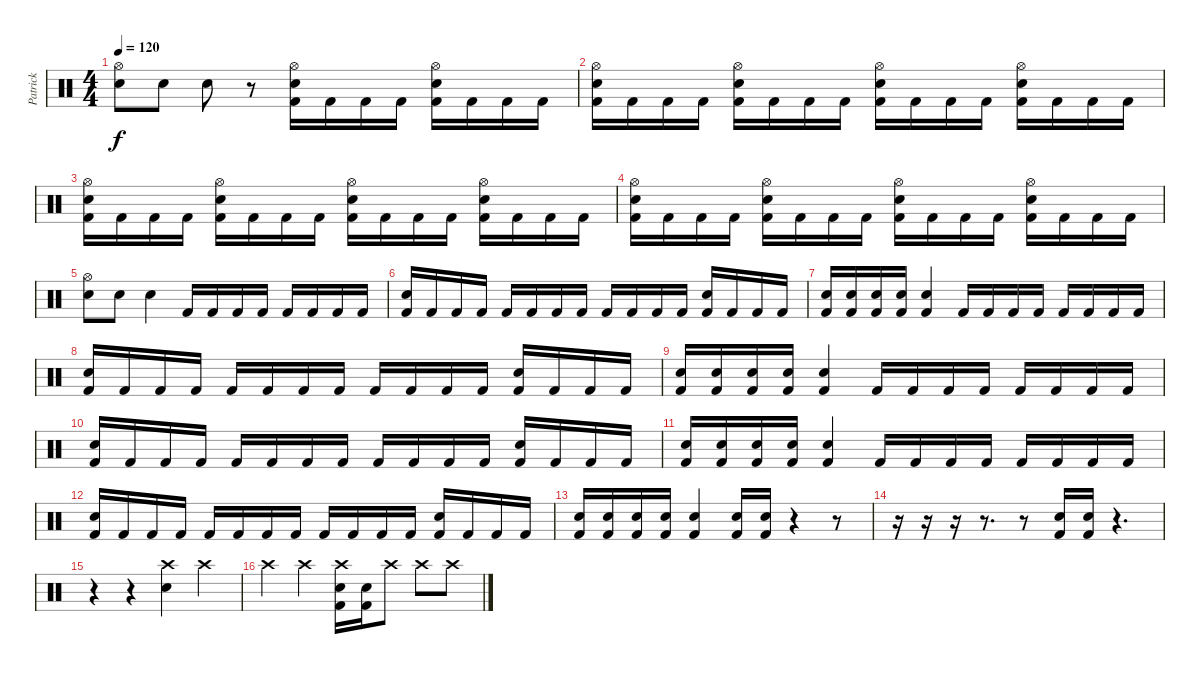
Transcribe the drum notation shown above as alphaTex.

\track ("Patrick" "Patrick") {instrument percussion}
\staff {score}
\articulation defaults
\ts (4 4)
\tempo 120
\clef neutral
\ks c
("Hi-Hat (open)" "Snare (hit) 2").8{dy f} "Snare (hit) 2".8 "Snare (hit) 2".8 r.8 ("Snare (hit) 2" "Kick (hit) 2" "Hi-Hat (open)").16 "Kick (hit) 2".16 "Kick (hit) 2".16 "Kick (hit) 2".16 ("Snare (hit) 2" "Kick (hit) 2" "Hi-Hat (open)").16 "Kick (hit) 2".16 "Kick (hit) 2".16 "Kick (hit) 2".16 |
("Snare (hit) 2" "Kick (hit) 2" "Hi-Hat (open)").16 "Kick (hit) 2".16 "Kick (hit) 2".16 "Kick (hit) 2".16 ("Snare (hit) 2" "Kick (hit) 2" "Hi-Hat (open)").16 "Kick (hit) 2".16 "Kick (hit) 2".16 "Kick (hit) 2".16 ("Snare (hit) 2" "Kick (hit) 2" "Hi-Hat (open)").16 "Kick (hit) 2".16 "Kick (hit) 2".16 "Kick (hit) 2".16 ("Snare (hit) 2" "Kick (hit) 2" "Hi-Hat (open)").16 "Kick (hit) 2".16 "Kick (hit) 2".16 "Kick (hit) 2".16 |
("Snare (hit) 2" "Kick (hit) 2" "Hi-Hat (open)").16 "Kick (hit) 2".16 "Kick (hit) 2".16 "Kick (hit) 2".16 ("Snare (hit) 2" "Kick (hit) 2" "Hi-Hat (open)").16 "Kick (hit) 2".16 "Kick (hit) 2".16 "Kick (hit) 2".16 ("Snare (hit) 2" "Kick (hit) 2" "Hi-Hat (open)").16 "Kick (hit) 2".16 "Kick (hit) 2".16 "Kick (hit) 2".16 ("Snare (hit) 2" "Kick (hit) 2" "Hi-Hat (open)").16 "Kick (hit) 2".16 "Kick (hit) 2".16 "Kick (hit) 2".16 |
("Snare (hit) 2" "Kick (hit) 2" "Hi-Hat (open)").16 "Kick (hit) 2".16 "Kick (hit) 2".16 "Kick (hit) 2".16 ("Snare (hit) 2" "Kick (hit) 2" "Hi-Hat (open)").16 "Kick (hit) 2".16 "Kick (hit) 2".16 "Kick (hit) 2".16 ("Snare (hit) 2" "Kick (hit) 2" "Hi-Hat (open)").16 "Kick (hit) 2".16 "Kick (hit) 2".16 "Kick (hit) 2".16 ("Snare (hit) 2" "Kick (hit) 2" "Hi-Hat (open)").16 "Kick (hit) 2".16 "Kick (hit) 2".16 "Kick (hit) 2".16 |
("Hi-Hat (open)" "Snare (hit) 2").8 "Snare (hit) 2".8 "Snare (hit) 2".4 "Kick (hit) 2".16 "Kick (hit) 2".16 "Kick (hit) 2".16 "Kick (hit) 2".16 "Kick (hit) 2".16 "Kick (hit) 2".16 "Kick (hit) 2".16 "Kick (hit) 2".16 |
("Kick (hit) 2" "Snare (hit) 2").16 "Kick (hit) 2".16 "Kick (hit) 2".16 "Kick (hit) 2".16 "Kick (hit) 2".16 "Kick (hit) 2".16 "Kick (hit) 2".16 "Kick (hit) 2".16 "Kick (hit) 2".16 "Kick (hit) 2".16 "Kick (hit) 2".16 "Kick (hit) 2".16 ("Kick (hit) 2" "Snare (hit) 2").16 "Kick (hit) 2".16 "Kick (hit) 2".16 "Kick (hit) 2".16 |
("Kick (hit) 2" "Snare (hit) 2").16 ("Kick (hit) 2" "Snare (hit) 2").16 ("Kick (hit) 2" "Snare (hit) 2").16 ("Kick (hit) 2" "Snare (hit) 2").16 ("Kick (hit) 2" "Snare (hit) 2").4 "Kick (hit) 2".16 "Kick (hit) 2".16 "Kick (hit) 2".16 "Kick (hit) 2".16 "Kick (hit) 2".16 "Kick (hit) 2".16 "Kick (hit) 2".16 "Kick (hit) 2".16 |
("Kick (hit) 2" "Snare (hit) 2").16 "Kick (hit) 2".16 "Kick (hit) 2".16 "Kick (hit) 2".16 "Kick (hit) 2".16 "Kick (hit) 2".16 "Kick (hit) 2".16 "Kick (hit) 2".16 "Kick (hit) 2".16 "Kick (hit) 2".16 "Kick (hit) 2".16 "Kick (hit) 2".16 ("Kick (hit) 2" "Snare (hit) 2").16 "Kick (hit) 2".16 "Kick (hit) 2".16 "Kick (hit) 2".16 |
("Kick (hit) 2" "Snare (hit) 2").16 ("Kick (hit) 2" "Snare (hit) 2").16 ("Kick (hit) 2" "Snare (hit) 2").16 ("Kick (hit) 2" "Snare (hit) 2").16 ("Kick (hit) 2" "Snare (hit) 2").4 "Kick (hit) 2".16 "Kick (hit) 2".16 "Kick (hit) 2".16 "Kick (hit) 2".16 "Kick (hit) 2".16 "Kick (hit) 2".16 "Kick (hit) 2".16 "Kick (hit) 2".16 |
("Kick (hit) 2" "Snare (hit) 2").16 "Kick (hit) 2".16 "Kick (hit) 2".16 "Kick (hit) 2".16 "Kick (hit) 2".16 "Kick (hit) 2".16 "Kick (hit) 2".16 "Kick (hit) 2".16 "Kick (hit) 2".16 "Kick (hit) 2".16 "Kick (hit) 2".16 "Kick (hit) 2".16 ("Kick (hit) 2" "Snare (hit) 2").16 "Kick (hit) 2".16 "Kick (hit) 2".16 "Kick (hit) 2".16 |
("Kick (hit) 2" "Snare (hit) 2").16 ("Kick (hit) 2" "Snare (hit) 2").16 ("Kick (hit) 2" "Snare (hit) 2").16 ("Kick (hit) 2" "Snare (hit) 2").16 ("Kick (hit) 2" "Snare (hit) 2").4 "Kick (hit) 2".16 "Kick (hit) 2".16 "Kick (hit) 2".16 "Kick (hit) 2".16 "Kick (hit) 2".16 "Kick (hit) 2".16 "Kick (hit) 2".16 "Kick (hit) 2".16 |
("Kick (hit) 2" "Snare (hit) 2").16 "Kick (hit) 2".16 "Kick (hit) 2".16 "Kick (hit) 2".16 "Kick (hit) 2".16 "Kick (hit) 2".16 "Kick (hit) 2".16 "Kick (hit) 2".16 "Kick (hit) 2".16 "Kick (hit) 2".16 "Kick (hit) 2".16 "Kick (hit) 2".16 ("Kick (hit) 2" "Snare (hit) 2").16 "Kick (hit) 2".16 "Kick (hit) 2".16 "Kick (hit) 2".16 |
("Kick (hit) 2" "Snare (hit) 2").16 ("Kick (hit) 2" "Snare (hit) 2").16 ("Kick (hit) 2" "Snare (hit) 2").16 ("Kick (hit) 2" "Snare (hit) 2").16 ("Kick (hit) 2" "Snare (hit) 2").4 ("Kick (hit) 2" "Snare (hit) 2").16 ("Kick (hit) 2" "Snare (hit) 2").16 r.4 r.8 |
r.16 r.16 r.16 r.8{d} r.8 ("Kick (hit) 2" "Electric Snare (hit)").16 ("Kick (hit) 2" "Electric Snare (hit)").16 r.4{d} |
r.4 r.4 ("Snare (hit) 2" "Crash high (hit)").4 "Crash high (hit)".4 |
"Crash high (hit)".4 "Crash high (hit)".4 ("Kick (hit) 2" "Electric Snare (hit)" "Crash high (hit)").16 ("Kick (hit) 2" "Electric Snare (hit)").16 "Crash high (hit)".8 "Crash high (hit)".8 "Crash high (hit)".8
